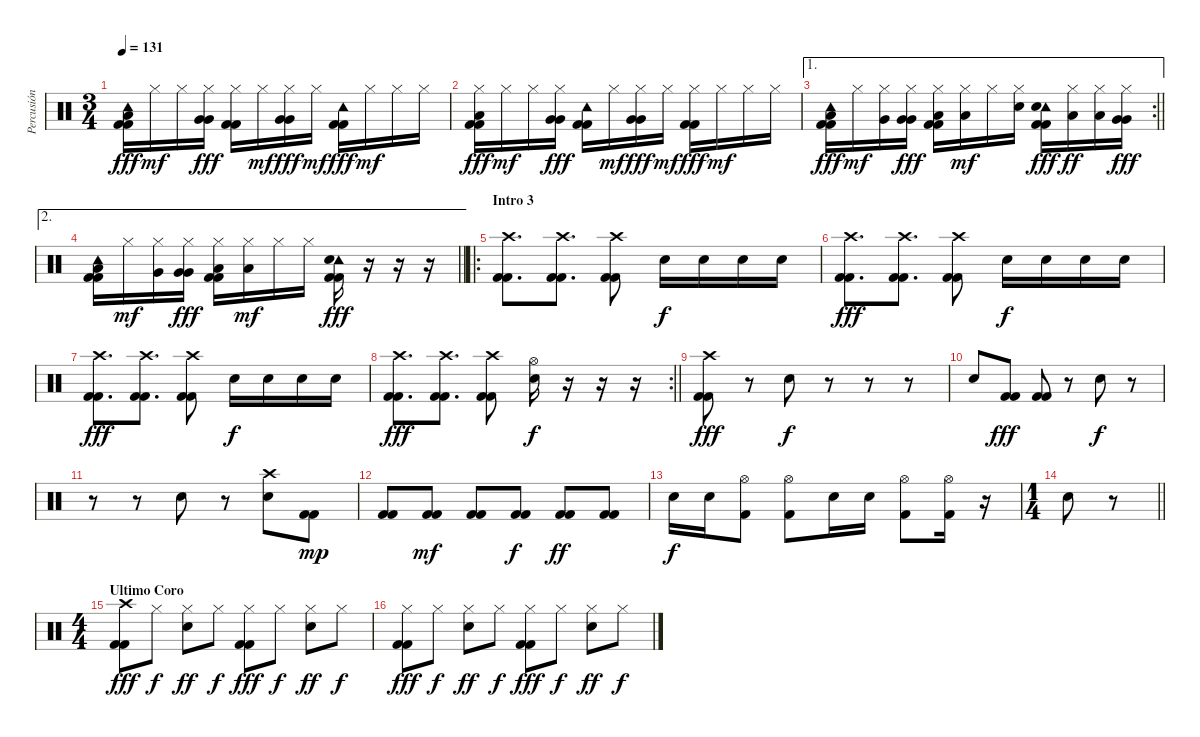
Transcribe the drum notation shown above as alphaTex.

\track ("Percusión" "Percusión") {instrument percussion}
\staff {score}
\articulation defaults
\ts (3 4)
\tempo 131
\clef neutral
\ks c
("Tambourine (hit)" "Low Tom (hit)" "Kick (hit) 2" "Kick (hit) 2").16{dy fff} "Hi-Hat (closed)".16{dy mf} "Hi-Hat (closed)".16 ("Hi-Hat (closed)" "Very Low Tom (hit)" "Very Low Tom (hit)").16{dy fff} ("Hi-Hat (closed)" "Kick (hit) 2" "Kick (hit) 2").16 "Hi-Hat (closed)".16{dy mf} ("Hi-Hat (closed)" "Very Low Tom (hit)" "Very Low Tom (hit)").16{dy fff} "Hi-Hat (closed)".16{dy mf} ("Tambourine (hit)" "Kick (hit) 2" "Kick (hit) 2").16{dy fff} "Hi-Hat (closed)".16{dy mf} "Hi-Hat (closed)".16 "Hi-Hat (closed)".16 |
("Hi-Hat (closed)" "Low Tom (hit)" "Kick (hit) 2" "Kick (hit) 2").16{dy fff} "Hi-Hat (closed)".16{dy mf} "Hi-Hat (closed)".16 ("Hi-Hat (closed)" "Very Low Tom (hit)" "Very Low Tom (hit)").16{dy fff} ("Tambourine (hit)" "Kick (hit) 2" "Kick (hit) 2").16 "Hi-Hat (closed)".16{dy mf} ("Hi-Hat (closed)" "Very Low Tom (hit)" "Very Low Tom (hit)").16{dy fff} "Hi-Hat (closed)".16{dy mf} ("Hi-Hat (closed)" "Kick (hit) 2" "Kick (hit) 2").16{dy fff} "Hi-Hat (closed)".16{dy mf} "Hi-Hat (closed)".16 "Hi-Hat (closed)".16 |
\ae 1
\rc 2
\barLineRight lightlight
("Tambourine (hit)" "Low Tom (hit)" "Kick (hit) 2" "Kick (hit) 2").16{dy fff} "Hi-Hat (closed)".16{dy mf} ("Hi-Hat (closed)" "Very Low Tom (hit)").16 ("Hi-Hat (closed)" "Very Low Tom (hit)" "Very Low Tom (hit)").16{dy fff} ("Hi-Hat (closed)" "Low Floor Tom (hit)" "Kick (hit) 2" "Kick (hit) 2").16 ("Hi-Hat (closed)" "Low Floor Tom (hit)").16{dy mf} "Hi-Hat (closed)".16 ("Hi-Hat (closed)" "Electric Snare (hit)").16 ("Tambourine (hit)" "Electric Snare (hit)" "Kick (hit) 2" "Kick (hit) 2").16{dy fff} ("Hi-Hat (closed)" "Low Tom (hit)").16{dy ff} ("Hi-Hat (closed)" "Low Tom (hit)").16 ("Hi-Hat (closed)" "Very Low Tom (hit)" "Very Low Tom (hit)").16{dy fff} |
\ae 2
\barLineRight lightlight
("Tambourine (hit)" "Low Tom (hit)" "Kick (hit) 2" "Kick (hit) 2").16 "Hi-Hat (closed)".16{dy mf} ("Hi-Hat (closed)" "Very Low Tom (hit)").16 ("Hi-Hat (closed)" "Very Low Tom (hit)" "Very Low Tom (hit)").16{dy fff} ("Hi-Hat (closed)" "Low Floor Tom (hit)" "Kick (hit) 2" "Kick (hit) 2").16 ("Hi-Hat (closed)" "Low Floor Tom (hit)").16{dy mf} "Hi-Hat (closed)".16 "Hi-Hat (closed)".16 ("Tambourine (hit)" "Electric Snare (hit)" "Kick (hit) 2" "Kick (hit) 2").16{dy fff} r.16 r.16 r.16 |
\ro
\section ("" "Intro 3")
("Crash high (hit)" "Kick (hit) 2" "Kick (hit) 2").8{d} ("Crash high (hit)" "Kick (hit) 2" "Kick (hit) 2").8{d} ("Crash high (hit)" "Kick (hit) 2" "Kick (hit) 2").8 "Electric Snare (hit)".16{dy f} "Electric Snare (hit)".16 "Electric Snare (hit)".16 "Electric Snare (hit)".16 |
("Crash high (hit)" "Kick (hit) 2" "Kick (hit) 2").8{d dy fff} ("Crash high (hit)" "Kick (hit) 2" "Kick (hit) 2").8{d} ("Crash high (hit)" "Kick (hit) 2" "Kick (hit) 2").8 "Electric Snare (hit)".16{dy f} "Electric Snare (hit)".16 "Electric Snare (hit)".16 "Electric Snare (hit)".16 |
("Crash high (hit)" "Kick (hit) 2" "Kick (hit) 2").8{d dy fff} ("Crash high (hit)" "Kick (hit) 2" "Kick (hit) 2").8{d} ("Crash high (hit)" "Kick (hit) 2" "Kick (hit) 2").8 "Electric Snare (hit)".16{dy f} "Electric Snare (hit)".16 "Electric Snare (hit)".16 "Electric Snare (hit)".16 |
\rc 2
\barLineRight lightlight
("Crash high (hit)" "Kick (hit) 2" "Kick (hit) 2").8{d dy fff} ("Crash high (hit)" "Kick (hit) 2" "Kick (hit) 2").8{d} ("Crash high (hit)" "Kick (hit) 2" "Kick (hit) 2").8 ("Hi-Hat (open)" "Electric Snare (hit)").16{dy f} r.16 r.16 r.16 |
("Crash high (hit)" "Kick (hit) 2" "Kick (hit) 2").8{dy fff} r.8 "Electric Snare (hit)".8{dy f} r.8 r.8 r.8 |
"Electric Snare (hit)".8 ("Kick (hit) 2" "Kick (hit) 2").8{dy fff} ("Kick (hit) 2" "Kick (hit) 2").8 r.8 "Electric Snare (hit)".8{dy f} r.8 |
r.8 r.8 "Electric Snare (hit)".8 r.8 ("Crash high (hit)" "Electric Snare (hit)").8 ("Kick (hit) 2" "Kick (hit) 2").8{dy mp} |
("Kick (hit) 2" "Kick (hit) 2").8 ("Kick (hit) 2" "Kick (hit) 2").8{dy mf} ("Kick (hit) 2" "Kick (hit) 2").8 ("Kick (hit) 2" "Kick (hit) 2").8{dy f} ("Kick (hit) 2" "Kick (hit) 2").8{dy ff} ("Kick (hit) 2" "Kick (hit) 2").8 |
"Electric Snare (hit)".16{dy f} "Electric Snare (hit)".16 ("Hi-Hat (open)" "Kick (hit) 2").8 ("Hi-Hat (open)" "Kick (hit) 2").8 "Electric Snare (hit)".16 "Electric Snare (hit)".16 ("Hi-Hat (open)" "Kick (hit) 2").8 ("Hi-Hat (open)" "Kick (hit) 2").16 r.16 |
\ts (1 4)
\barLineRight lightlight "Electric Snare (hit)".8
r.8 |
\ts (4 4)
\section ("" "Ultimo Coro")
("Crash high (hit)" "Kick (hit) 2" "Kick (hit) 2").8{dy fff} "Hi-Hat (closed)".8{dy f} ("Hi-Hat (closed)" "Electric Snare (hit)").8{dy ff} "Hi-Hat (closed)".8{dy f} ("Hi-Hat (closed)" "Kick (hit) 2" "Kick (hit) 2").8{dy fff} "Hi-Hat (closed)".8{dy f} ("Hi-Hat (closed)" "Electric Snare (hit)").8{dy ff} "Hi-Hat (closed)".8{dy f} |
("Hi-Hat (closed)" "Kick (hit) 2" "Kick (hit) 2").8{dy fff} "Hi-Hat (closed)".8{dy f} ("Hi-Hat (closed)" "Electric Snare (hit)").8{dy ff} "Hi-Hat (closed)".8{dy f} ("Hi-Hat (closed)" "Kick (hit) 2" "Kick (hit) 2").8{dy fff} "Hi-Hat (closed)".8{dy f} ("Hi-Hat (closed)" "Electric Snare (hit)").8{dy ff} "Hi-Hat (closed)".8{dy f}
